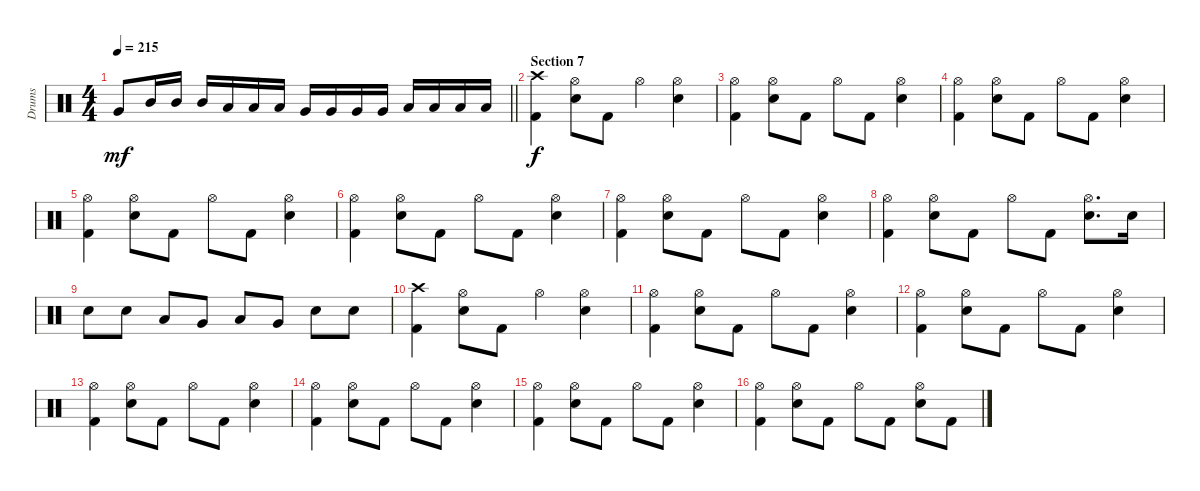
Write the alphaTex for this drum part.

\track ("Drums" "Drums") {instrument percussion}
\staff {score}
\articulation defaults
\ts (4 4)
\tempo 215
\clef neutral
\barLineRight lightlight
\ks c "Very Low Tom (hit)".8{dy mf} "Mid Tom (hit)".16 "Mid Tom (hit)".16 "Mid Tom (hit)".16 "Low Tom (hit)".16 "Low Tom (hit)".16 "Low Tom (hit)".16 "Very Low Tom (hit)".16 "Very Low Tom (hit)".16 "Very Low Tom (hit)".16 "Very Low Tom (hit)".16 "Low Floor Tom (hit)".16 "Low Floor Tom (hit)".16 "Low Floor Tom (hit)".16 "Low Floor Tom (hit)".16
|
\section ("" "Section 7")
("Crash high (hit)" "Kick (hit) 2").4{dy f} ("Hi-Hat (open)" "Snare (hit) 2").8 "Kick (hit) 2".8 "Hi-Hat (open)".4 ("Hi-Hat (open)" "Snare (hit) 2").4 |
("Hi-Hat (open)" "Kick (hit) 2").4 ("Hi-Hat (open)" "Snare (hit) 2").8 "Kick (hit) 2".8 "Hi-Hat (open)".8 "Kick (hit) 2".8 ("Hi-Hat (open)" "Snare (hit) 2").4 |
("Hi-Hat (open)" "Kick (hit) 2").4 ("Hi-Hat (open)" "Snare (hit) 2").8 "Kick (hit) 2".8 "Hi-Hat (open)".8 "Kick (hit) 2".8 ("Hi-Hat (open)" "Snare (hit) 2").4 |
("Hi-Hat (open)" "Kick (hit) 2").4 ("Hi-Hat (open)" "Snare (hit) 2").8 "Kick (hit) 2".8 "Hi-Hat (open)".8 "Kick (hit) 2".8 ("Hi-Hat (open)" "Snare (hit) 2").4 |
("Hi-Hat (open)" "Kick (hit) 2").4 ("Hi-Hat (open)" "Snare (hit) 2").8 "Kick (hit) 2".8 "Hi-Hat (open)".8 "Kick (hit) 2".8 ("Hi-Hat (open)" "Snare (hit) 2").4 |
("Hi-Hat (open)" "Kick (hit) 2").4 ("Hi-Hat (open)" "Snare (hit) 2").8 "Kick (hit) 2".8 "Hi-Hat (open)".8 "Kick (hit) 2".8 ("Hi-Hat (open)" "Snare (hit) 2").4 |
("Hi-Hat (open)" "Kick (hit) 2").4 ("Hi-Hat (open)" "Snare (hit) 2").8 "Kick (hit) 2".8 "Hi-Hat (open)".8 "Kick (hit) 2".8 ("Hi-Hat (open)" "Snare (hit) 2").8{d} "Snare (hit) 2".16 |
"Snare (hit) 2".8 "Snare (hit) 2".8 "Low Tom (hit)".8 "Very Low Tom (hit)".8 "Low Floor Tom (hit)".8 "Very Low Tom (hit)".8 "Snare (hit) 2".8 "Snare (hit) 2".8 |
("Crash high (hit)" "Kick (hit) 2").4 ("Hi-Hat (open)" "Snare (hit) 2").8 "Kick (hit) 2".8 "Hi-Hat (open)".4 ("Hi-Hat (open)" "Snare (hit) 2").4 |
("Hi-Hat (open)" "Kick (hit) 2").4 ("Hi-Hat (open)" "Snare (hit) 2").8 "Kick (hit) 2".8 "Hi-Hat (open)".8 "Kick (hit) 2".8 ("Hi-Hat (open)" "Snare (hit) 2").4 |
("Hi-Hat (open)" "Kick (hit) 2").4 ("Hi-Hat (open)" "Snare (hit) 2").8 "Kick (hit) 2".8 "Hi-Hat (open)".8 "Kick (hit) 2".8 ("Hi-Hat (open)" "Snare (hit) 2").4 |
("Hi-Hat (open)" "Kick (hit) 2").4 ("Hi-Hat (open)" "Snare (hit) 2").8 "Kick (hit) 2".8 "Hi-Hat (open)".8 "Kick (hit) 2".8 ("Hi-Hat (open)" "Snare (hit) 2").4 |
("Hi-Hat (open)" "Kick (hit) 2").4 ("Hi-Hat (open)" "Snare (hit) 2").8 "Kick (hit) 2".8 "Hi-Hat (open)".8 "Kick (hit) 2".8 ("Hi-Hat (open)" "Snare (hit) 2").4 |
("Hi-Hat (open)" "Kick (hit) 2").4 ("Hi-Hat (open)" "Snare (hit) 2").8 "Kick (hit) 2".8 "Hi-Hat (open)".8 "Kick (hit) 2".8 ("Hi-Hat (open)" "Snare (hit) 2").4 |
("Hi-Hat (open)" "Kick (hit) 2").4 ("Hi-Hat (open)" "Snare (hit) 2").8 "Kick (hit) 2".8 "Hi-Hat (open)".8 "Kick (hit) 2".8 ("Hi-Hat (open)" "Snare (hit) 2").8 "Kick (hit) 2".8
